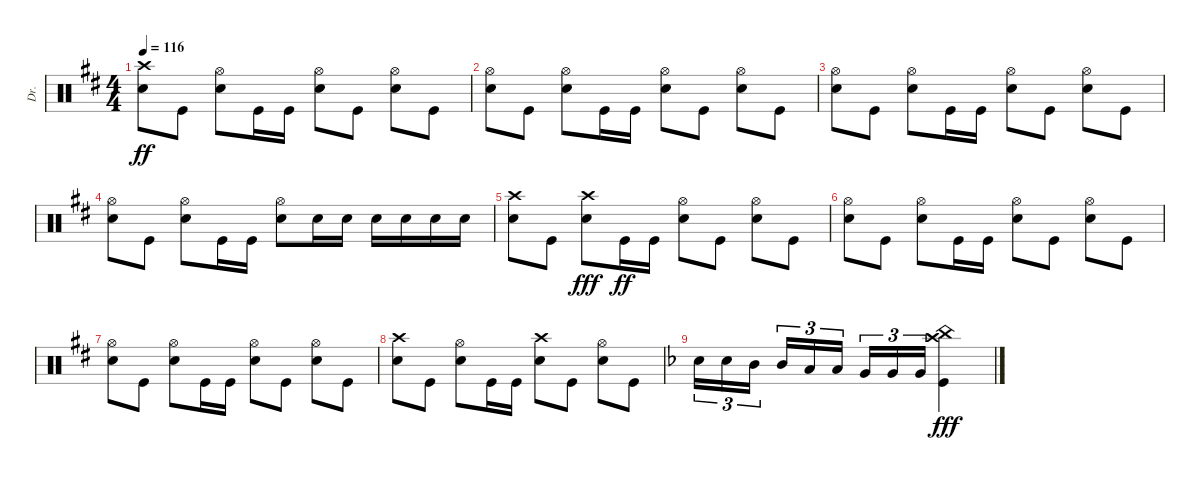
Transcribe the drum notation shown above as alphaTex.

\track ("Dr." "Dr.") {instrument percussion}
\staff {score}
\articulation defaults
\ts (4 4)
\tempo 116
\clef neutral
\ks d
("Snare (hit) 2" "Crash high (hit)").8{dy ff} "Kick (hit)".8 ("Snare (hit) 2" "Hi-Hat (open)").8 "Kick (hit)".16 "Kick (hit)".16 ("Snare (hit) 2" "Hi-Hat (open)").8 "Kick (hit)".8 ("Snare (hit) 2" "Hi-Hat (open)").8 "Kick (hit)".8 |
("Snare (hit) 2" "Hi-Hat (open)").8 "Kick (hit)".8 ("Snare (hit) 2" "Hi-Hat (open)").8 "Kick (hit)".16 "Kick (hit)".16 ("Snare (hit) 2" "Hi-Hat (open)").8 "Kick (hit)".8 ("Snare (hit) 2" "Hi-Hat (open)").8 "Kick (hit)".8 |
("Snare (hit) 2" "Hi-Hat (open)").8 "Kick (hit)".8 ("Snare (hit) 2" "Hi-Hat (open)").8 "Kick (hit)".16 "Kick (hit)".16 ("Snare (hit) 2" "Hi-Hat (open)").8 "Kick (hit)".8 ("Snare (hit) 2" "Hi-Hat (open)").8 "Kick (hit)".8 |
("Snare (hit) 2" "Hi-Hat (open)").8 "Kick (hit)".8 ("Snare (hit) 2" "Hi-Hat (open)").8 "Kick (hit)".16 "Kick (hit)".16 ("Snare (hit) 2" "Hi-Hat (open)").8 "Snare (hit) 2".16 "Snare (hit) 2".16 "Snare (hit) 2".16 "Snare (hit) 2".16 "Snare (hit) 2".16 "Snare (hit) 2".16 |
("Snare (hit) 2" "Crash high (hit)").8 "Kick (hit)".8 ("Snare (hit) 2" "Crash high (hit)").8{dy fff} "Kick (hit)".16{dy ff} "Kick (hit)".16 ("Snare (hit) 2" "Hi-Hat (open)").8 "Kick (hit)".8 ("Snare (hit) 2" "Hi-Hat (open)").8 "Kick (hit)".8 |
("Snare (hit) 2" "Hi-Hat (open)").8 "Kick (hit)".8 ("Snare (hit) 2" "Hi-Hat (open)").8 "Kick (hit)".16 "Kick (hit)".16 ("Snare (hit) 2" "Hi-Hat (open)").8 "Kick (hit)".8 ("Snare (hit) 2" "Hi-Hat (open)").8 "Kick (hit)".8 |
("Snare (hit) 2" "Hi-Hat (open)").8 "Kick (hit)".8 ("Snare (hit) 2" "Hi-Hat (open)").8 "Kick (hit)".16 "Kick (hit)".16 ("Snare (hit) 2" "Hi-Hat (open)").8 "Kick (hit)".8 ("Snare (hit) 2" "Hi-Hat (open)").8 "Kick (hit)".8 |
("Snare (hit) 2" "Crash high (hit)").8 "Kick (hit)".8 ("Snare (hit) 2" "Hi-Hat (open)").8 "Kick (hit)".16 "Kick (hit)".16 ("Snare (hit) 2" "Crash high (hit)").8 "Kick (hit)".8 ("Snare (hit) 2" "Hi-Hat (open)").8 "Kick (hit)".8 |
\ks f "Snare (hit) 2".16{tu (3 2)} "Snare (hit) 2".16{tu (3 2)} "Mid Tom (hit)".16{tu (3 2) beam splitsecondary} "Mid Tom (hit)".16{tu (3 2)} "Low Tom (hit)".16{tu (3 2)} "Low Tom (hit)".16{tu (3 2)} "Very Low Tom (hit)".16{tu (3 2)} "Very Low Tom (hit)".16{tu (3 2)} "Very Low Tom (hit)".16{tu (3 2)}
("Crash high (hit)" "China (hit)" "Kick (hit)").4{dy fff}
